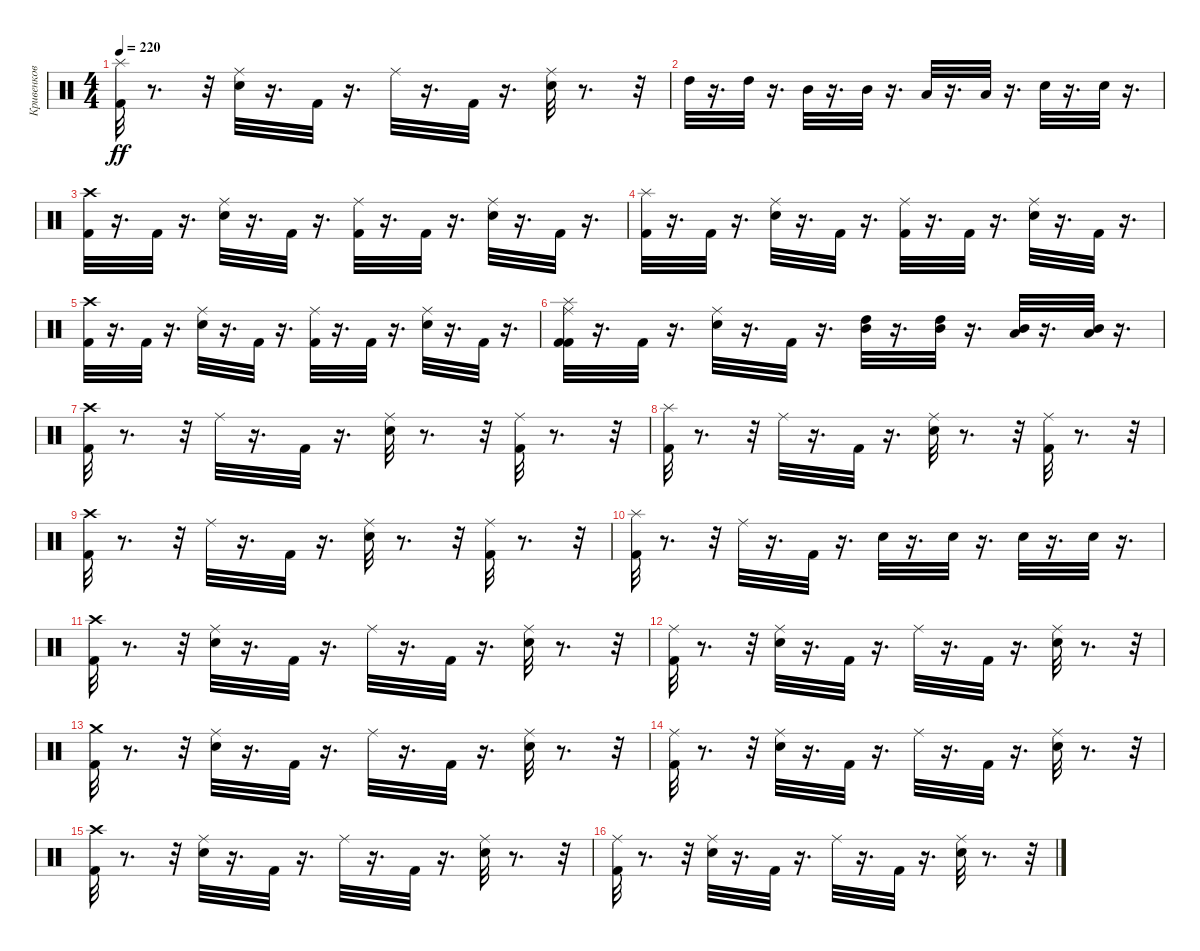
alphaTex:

\track ("Кривенков" "Кривенков") {instrument percussion}
\staff {score}
\articulation defaults
\ts (4 4)
\tempo 220
\clef neutral
\ks c
("Splash (hit)" "Kick (hit) 2").32{dy ff} r.8{d} r.32 ("Ride (middle)" "Electric Snare (hit)").32 r.16{d} "Kick (hit) 2".32 r.16{d} "Ride (middle)".32 r.16{d} "Kick (hit) 2".32 r.16{d} ("Ride (middle)" "Electric Snare (hit)").32 r.8{d} r.32 |
"High Tom (hit)".32 r.16{d} "High Tom (hit)".32 r.16{d} "Mid Tom (hit)".32 r.16{d} "Mid Tom (hit)".32 r.16{d} "Low Tom (hit)".32 r.16{d} "Low Tom (hit)".32 r.16{d} "Snare (hit) 2".32 r.16{d} "Snare (hit) 2".32 r.16{d} |
("Crash high (hit)" "Kick (hit) 2").32 r.16{d} "Kick (hit) 2".32 r.16{d} ("Ride (middle)" "Snare (hit) 2").32 r.16{d} "Kick (hit) 2".32 r.16{d} ("Ride (middle)" "Kick (hit) 2").32 r.16{d} "Kick (hit) 2".32 r.16{d} ("Snare (hit) 2" "Ride (middle)").32 r.16{d} "Kick (hit) 2".32 r.16{d} |
("Kick (hit) 2" "Splash (hit)").32 r.16{d} "Kick (hit) 2".32 r.16{d} ("Electric Snare (hit)" "Ride (middle)").32 r.16{d} "Kick (hit) 2".32 r.16{d} ("Kick (hit) 2" "Ride (middle)").32 r.16{d} "Kick (hit) 2".32 r.16{d} ("Electric Snare (hit)" "Ride (middle)").32 r.16{d} "Kick (hit) 2".32 r.16{d} |
("Crash high (hit)" "Kick (hit) 2").32 r.16{d} "Kick (hit) 2".32 r.16{d} ("Ride (middle)" "Electric Snare (hit)").32 r.16{d} "Kick (hit) 2".32 r.16{d} ("Ride (middle)" "Kick (hit) 2").32 r.16{d} "Kick (hit) 2".32 r.16{d} ("Electric Snare (hit)" "Ride (middle)").32 r.16{d} "Kick (hit) 2".32 r.16{d} |
("Ride (middle)" "Kick (hit) 2" "Kick (hit) 2" "Splash (hit)").32 r.16{d} "Kick (hit) 2".32 r.16{d} ("Ride (middle)" "Electric Snare (hit)").32 r.16{d} "Kick (hit) 2".32 r.16{d} ("Mid Tom (hit)" "High Tom (hit)").32 r.16{d} ("Mid Tom (hit)" "High Tom (hit)").32 r.16{d} ("Low Tom (hit)" "Mid Tom (hit)").32 r.16{d} ("Low Tom (hit)" "Mid Tom (hit)").32 r.16{d} |
("Kick (hit) 2" "Crash high (hit)").32 r.8{d} r.32 "Ride (middle)".32 r.16{d} "Kick (hit) 2".32 r.16{d} ("Electric Snare (hit)" "Ride (middle)").32 r.8{d} r.32 ("Kick (hit) 2" "Ride (middle)").32 r.8{d} r.32 |
("Splash (hit)" "Kick (hit) 2").32 r.8{d} r.32 "Ride (middle)".32 r.16{d} "Kick (hit) 2".32 r.16{d} ("Ride (middle)" "Electric Snare (hit)").32 r.8{d} r.32 ("Ride (middle)" "Kick (hit) 2").32 r.8{d} r.32 |
("Kick (hit) 2" "Crash high (hit)").32 r.8{d} r.32 "Ride (middle)".32 r.16{d} "Kick (hit) 2".32 r.16{d} ("Electric Snare (hit)" "Ride (middle)").32 r.8{d} r.32 ("Kick (hit) 2" "Ride (middle)").32 r.8{d} r.32 |
("Splash (hit)" "Kick (hit) 2").32 r.8{d} r.32 "Ride (middle)".32 r.16{d} "Kick (hit) 2".32 r.16{d} "Electric Snare (hit)".32 r.16{d} "Electric Snare (hit)".32 r.16{d} "Electric Snare (hit)".32 r.16{d} "Electric Snare (hit)".32 r.16{d} |
("Crash high (hit)" "Kick (hit) 2").32 r.8{d} r.32 ("Ride (middle)" "Electric Snare (hit)").32 r.16{d} "Kick (hit) 2".32 r.16{d} "Ride (middle)".32 r.16{d} "Kick (hit) 2".32 r.16{d} ("Ride (middle)" "Electric Snare (hit)").32 r.8{d} r.32 |
("Kick (hit) 2" "Ride (middle)").32 r.8{d} r.32 ("Electric Snare (hit)" "Ride (middle)").32 r.16{d} "Kick (hit) 2".32 r.16{d} "Ride (middle)".32 r.16{d} "Kick (hit) 2".32 r.16{d} ("Electric Snare (hit)" "Ride (middle)").32 r.8{d} r.32 |
("Crash medium (hit)" "Kick (hit) 2").32 r.8{d} r.32 ("Ride (middle)" "Electric Snare (hit)").32 r.16{d} "Kick (hit) 2".32 r.16{d} "Ride (middle)".32 r.16{d} "Kick (hit) 2".32 r.16{d} ("Ride (middle)" "Electric Snare (hit)").32 r.8{d} r.32 |
("Kick (hit) 2" "Ride (middle)").32 r.8{d} r.32 ("Electric Snare (hit)" "Ride (middle)").32 r.16{d} "Kick (hit) 2".32 r.16{d} "Ride (middle)".32 r.16{d} "Kick (hit) 2".32 r.16{d} ("Electric Snare (hit)" "Ride (middle)").32 r.8{d} r.32 |
("Crash high (hit)" "Kick (hit) 2").32 r.8{d} r.32 ("Ride (middle)" "Electric Snare (hit)").32 r.16{d} "Kick (hit) 2".32 r.16{d} "Ride (middle)".32 r.16{d} "Kick (hit) 2".32 r.16{d} ("Ride (middle)" "Electric Snare (hit)").32 r.8{d} r.32 |
("Kick (hit) 2" "Ride (middle)").32 r.8{d} r.32 ("Electric Snare (hit)" "Ride (middle)").32 r.16{d} "Kick (hit) 2".32 r.16{d} "Ride (middle)".32 r.16{d} "Kick (hit) 2".32 r.16{d} ("Electric Snare (hit)" "Ride (middle)").32 r.8{d} r.32
